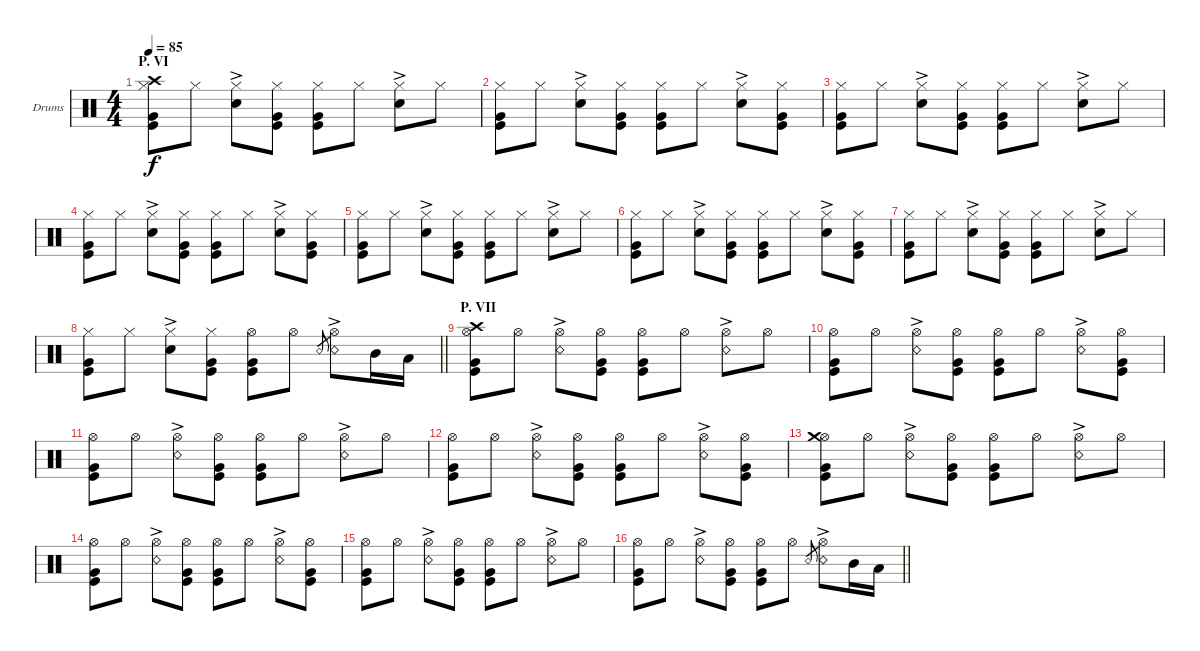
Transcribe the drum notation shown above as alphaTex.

\bracketExtendMode groupsimilarinstruments
\firstSystemTrackNameOrientation horizontal
\otherSystemsTrackNameOrientation horizontal
\track ("Drumkit" "Drums") {instrument percussion}
\staff {score}
\articulation defaults
\ts (4 4)
\section ("" "P. VI")
\tempo 85
\clef neutral
\ks c
("Hi-Hat (closed)" "Kick (hit)" "Crash high (hit)" "Very Low Tom (hit)").8{dy f} "Hi-Hat (closed)".8 ("Hi-Hat (closed)" "Snare (hit) 2"{ac}).8 ("Hi-Hat (closed)" "Kick (hit)" "Very Low Tom (hit)").8 ("Hi-Hat (closed)" "Kick (hit)" "Very Low Tom (hit)").8 "Hi-Hat (closed)".8 ("Hi-Hat (closed)" "Snare (hit) 2"{ac}).8 "Hi-Hat (closed)".8 |
("Hi-Hat (closed)" "Kick (hit)" "Very Low Tom (hit)").8 "Hi-Hat (closed)".8 ("Hi-Hat (closed)" "Snare (hit) 2"{ac}).8 ("Hi-Hat (closed)" "Kick (hit)" "Very Low Tom (hit)").8 ("Hi-Hat (closed)" "Kick (hit)" "Very Low Tom (hit)").8 "Hi-Hat (closed)".8 ("Hi-Hat (closed)" "Snare (hit) 2"{ac}).8 ("Hi-Hat (closed)" "Kick (hit)" "Very Low Tom (hit)").8 |
("Hi-Hat (closed)" "Kick (hit)" "Very Low Tom (hit)").8 "Hi-Hat (closed)".8 ("Hi-Hat (closed)" "Snare (hit) 2"{ac}).8 ("Hi-Hat (closed)" "Kick (hit)" "Very Low Tom (hit)").8 ("Hi-Hat (closed)" "Kick (hit)" "Very Low Tom (hit)").8 "Hi-Hat (closed)".8 ("Hi-Hat (closed)" "Snare (hit) 2"{ac}).8 "Hi-Hat (closed)".8 |
("Hi-Hat (closed)" "Kick (hit)" "Very Low Tom (hit)").8 "Hi-Hat (closed)".8 ("Hi-Hat (closed)" "Snare (hit) 2"{ac}).8 ("Hi-Hat (closed)" "Kick (hit)" "Very Low Tom (hit)").8 ("Hi-Hat (closed)" "Kick (hit)" "Very Low Tom (hit)").8 "Hi-Hat (closed)".8 ("Hi-Hat (closed)" "Snare (hit) 2"{ac}).8 ("Hi-Hat (closed)" "Kick (hit)" "Very Low Tom (hit)").8 |
("Hi-Hat (closed)" "Kick (hit)" "Very Low Tom (hit)").8 "Hi-Hat (closed)".8 ("Hi-Hat (closed)" "Snare (hit) 2"{ac}).8 ("Hi-Hat (closed)" "Kick (hit)" "Very Low Tom (hit)").8 ("Hi-Hat (closed)" "Kick (hit)" "Very Low Tom (hit)").8 "Hi-Hat (closed)".8 ("Hi-Hat (closed)" "Snare (hit) 2"{ac}).8 "Hi-Hat (closed)".8 |
("Hi-Hat (closed)" "Kick (hit)" "Very Low Tom (hit)").8 "Hi-Hat (closed)".8 ("Hi-Hat (closed)" "Snare (hit) 2"{ac}).8 ("Hi-Hat (closed)" "Kick (hit)" "Very Low Tom (hit)").8 ("Hi-Hat (closed)" "Kick (hit)" "Very Low Tom (hit)").8 "Hi-Hat (closed)".8 ("Hi-Hat (closed)" "Snare (hit) 2"{ac}).8 ("Hi-Hat (closed)" "Kick (hit)" "Very Low Tom (hit)").8 |
("Hi-Hat (closed)" "Kick (hit)" "Very Low Tom (hit)").8 "Hi-Hat (closed)".8 ("Hi-Hat (closed)" "Snare (hit) 2"{ac}).8 ("Hi-Hat (closed)" "Kick (hit)" "Very Low Tom (hit)").8 ("Hi-Hat (closed)" "Kick (hit)" "Very Low Tom (hit)").8 "Hi-Hat (closed)".8 ("Hi-Hat (closed)" "Snare (hit) 2"{ac}).8 "Hi-Hat (closed)".8 |
\barLineRight lightlight
("Hi-Hat (closed)" "Kick (hit)" "Very Low Tom (hit)").8 "Hi-Hat (closed)".8 ("Hi-Hat (closed)" "Snare (hit) 2"{ac}).8 ("Hi-Hat (closed)" "Kick (hit)" "Very Low Tom (hit)").8 ("Hi-Hat (open)" "Kick (hit)" "Very Low Tom (hit)").8 "Hi-Hat (open)".8 "Snare (rim shot)".8{gr} ("Hi-Hat (open)" "Snare (rim shot)"{ac}).8 "Mid Tom (hit)".16 "Low Tom (hit)".16 |
\section ("" "P. VII")
("Hi-Hat (open)" "Kick (hit)" "Crash high (hit)" "Very Low Tom (hit)").8 "Hi-Hat (open)".8 ("Hi-Hat (open)" "Snare (rim shot)"{ac}).8 ("Hi-Hat (open)" "Kick (hit)" "Very Low Tom (hit)").8 ("Hi-Hat (open)" "Kick (hit)" "Very Low Tom (hit)").8 "Hi-Hat (open)".8 ("Hi-Hat (open)" "Snare (rim shot)"{ac}).8 "Hi-Hat (open)".8 |
("Hi-Hat (open)" "Kick (hit)" "Very Low Tom (hit)").8 "Hi-Hat (open)".8 ("Hi-Hat (open)" "Snare (rim shot)"{ac}).8 ("Hi-Hat (open)" "Kick (hit)" "Very Low Tom (hit)").8 ("Hi-Hat (open)" "Kick (hit)" "Very Low Tom (hit)").8 "Hi-Hat (open)".8 ("Hi-Hat (open)" "Snare (rim shot)"{ac}).8 ("Hi-Hat (open)" "Kick (hit)" "Very Low Tom (hit)").8 |
("Hi-Hat (open)" "Kick (hit)" "Very Low Tom (hit)").8 "Hi-Hat (open)".8 ("Hi-Hat (open)" "Snare (rim shot)"{ac}).8 ("Hi-Hat (open)" "Kick (hit)" "Very Low Tom (hit)").8 ("Hi-Hat (open)" "Kick (hit)" "Very Low Tom (hit)").8 "Hi-Hat (open)".8 ("Hi-Hat (open)" "Snare (rim shot)"{ac}).8 "Hi-Hat (open)".8 |
("Hi-Hat (open)" "Kick (hit)" "Very Low Tom (hit)").8 "Hi-Hat (open)".8 ("Hi-Hat (open)" "Snare (rim shot)"{ac}).8 ("Hi-Hat (open)" "Kick (hit)" "Very Low Tom (hit)").8 ("Hi-Hat (open)" "Kick (hit)" "Very Low Tom (hit)").8 "Hi-Hat (open)".8 ("Hi-Hat (open)" "Snare (rim shot)"{ac}).8 ("Hi-Hat (open)" "Kick (hit)" "Very Low Tom (hit)").8 |
("Hi-Hat (open)" "Kick (hit)" "Crash medium (hit)" "Very Low Tom (hit)").8 "Hi-Hat (open)".8 ("Hi-Hat (open)" "Snare (rim shot)"{ac}).8 ("Hi-Hat (open)" "Kick (hit)" "Very Low Tom (hit)").8 ("Hi-Hat (open)" "Kick (hit)" "Very Low Tom (hit)").8 "Hi-Hat (open)".8 ("Hi-Hat (open)" "Snare (rim shot)"{ac}).8 "Hi-Hat (open)".8 |
("Hi-Hat (open)" "Kick (hit)" "Very Low Tom (hit)").8 "Hi-Hat (open)".8 ("Hi-Hat (open)" "Snare (rim shot)"{ac}).8 ("Hi-Hat (open)" "Kick (hit)" "Very Low Tom (hit)").8 ("Hi-Hat (open)" "Kick (hit)" "Very Low Tom (hit)").8 "Hi-Hat (open)".8 ("Hi-Hat (open)" "Snare (rim shot)"{ac}).8 ("Hi-Hat (open)" "Kick (hit)" "Very Low Tom (hit)").8 |
("Hi-Hat (open)" "Kick (hit)" "Very Low Tom (hit)").8 "Hi-Hat (open)".8 ("Hi-Hat (open)" "Snare (rim shot)"{ac}).8 ("Hi-Hat (open)" "Kick (hit)" "Very Low Tom (hit)").8 ("Hi-Hat (open)" "Kick (hit)" "Very Low Tom (hit)").8 "Hi-Hat (open)".8 ("Hi-Hat (open)" "Snare (rim shot)"{ac}).8 "Hi-Hat (open)".8 |
\barLineRight lightlight
("Hi-Hat (open)" "Kick (hit)" "Very Low Tom (hit)").8 "Hi-Hat (open)".8 ("Hi-Hat (open)" "Snare (rim shot)"{ac}).8 ("Hi-Hat (open)" "Kick (hit)" "Very Low Tom (hit)").8 ("Hi-Hat (open)" "Kick (hit)" "Very Low Tom (hit)").8 "Hi-Hat (open)".8 "Snare (rim shot)".8{gr} ("Hi-Hat (open)" "Snare (rim shot)"{ac}).8 "Mid Tom (hit)".16 "Low Tom (hit)".16
